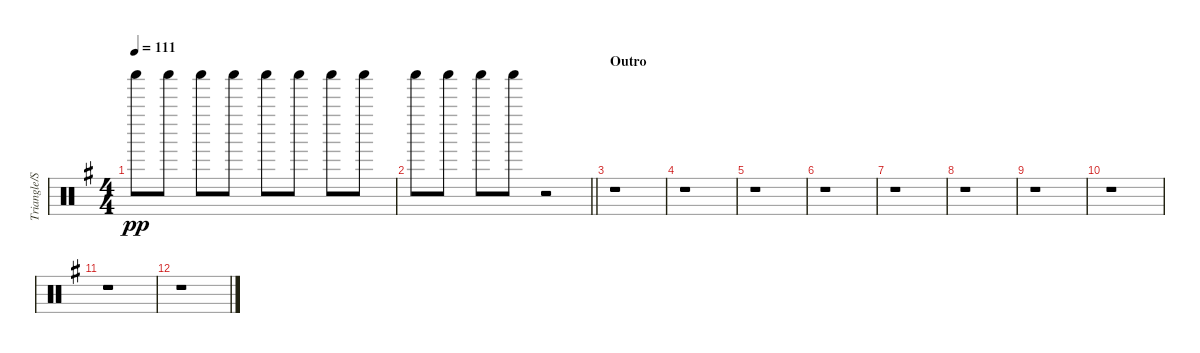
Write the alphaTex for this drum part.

\track ("Triangle/Shaker" "Triangle/S") {instrument percussion}
\staff {score}
\articulation defaults
\ts (4 4)
\tempo 111
\clef neutral
\ks g "Shaker (hit)".8{dy pp} "Shaker (hit)".8 "Shaker (hit)".8 "Shaker (hit)".8 "Shaker (hit)".8 "Shaker (hit)".8 "Shaker (hit)".8 "Shaker (hit)".8
|
\barLineRight lightlight "Shaker (hit)".8 "Shaker (hit)".8 "Shaker (hit)".8 "Shaker (hit)".8
r.2 |
\section ("" "Outro")
r.1 |
r.1 |
r.1 |
r.1 |
r.1 |
r.1 |
r.1 |
r.1 |
r.1 |
r.1
